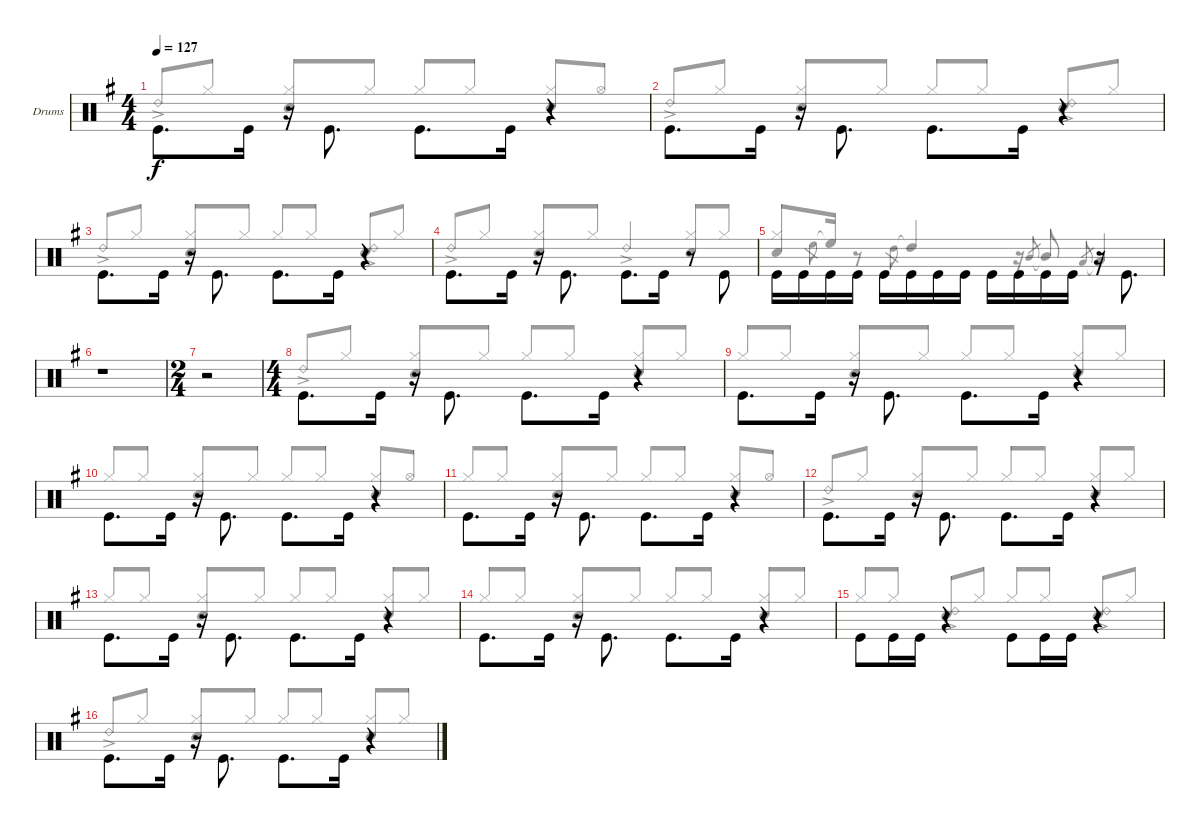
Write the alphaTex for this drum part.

\defaultSystemsLayout 4
\bracketExtendMode groupsimilarinstruments
\firstSystemTrackNameOrientation horizontal
\otherSystemsTrackNameOrientation horizontal
\track ("Drums" "Drums") {instrument percussion}
\staff {score}
\articulation defaults
\voice
\ts (4 4)
\tempo 127
\clef neutral
\scale
1.04288
\ks g "Kick (hit)".8{d dy f beam invert} "Kick (hit)".16
r.16{beam invert} "Kick (hit)".8{d beam invert} "Kick (hit)".8{d beam invert} "Kick (hit)".16 r.4 |
\scale
0.957125 "Kick (hit)".8{d beam invert} "Kick (hit)".16 r.16{beam invert} "Kick (hit)".8{d beam invert} "Kick (hit)".8{d beam invert} "Kick (hit)".16 r.4 |
\scale
1.04288 "Kick (hit)".8{d beam invert} "Kick (hit)".16 r.16{beam invert} "Kick (hit)".8{d beam invert} "Kick (hit)".8{d beam invert} "Kick (hit)".16 r.4 |
\scale
0.957125 "Kick (hit)".8{d beam invert} "Kick (hit)".16 r.16{beam invert} "Kick (hit)".8{d beam invert} "Kick (hit)".8{d beam invert} "Kick (hit)".16 r.8 "Kick (hit)".8{beam invert} |
\scale
1.04288 "Kick (hit)".16{beam invert} "Kick (hit)".16 "Kick (hit)".16 "Kick (hit)".16 "Kick (hit)".16{beam invert} "Kick (hit)".16 "Kick (hit)".16 "Kick (hit)".16 "Kick (hit)".16{beam invert} "Kick (hit)".16 "Kick (hit)".16 "Kick (hit)".16 r.16 "Kick (hit)".8{d beam invert} |
\scale
0.957125 r.1 |
\ts (2 4)
\scale
1.04288 r.2 |
\ts (4 4)
\scale
0.957125 "Kick (hit)".8{d beam invert} "Kick (hit)".16 r.16{beam invert} "Kick (hit)".8{d beam invert} "Kick (hit)".8{d beam invert} "Kick (hit)".16 r.4 |
\scale
1.04288 "Kick (hit)".8{d beam invert} "Kick (hit)".16 r.16{beam invert} "Kick (hit)".8{d beam invert} "Kick (hit)".8{d beam invert} "Kick (hit)".16 r.4 |
\scale
0.957125 "Kick (hit)".8{d beam invert} "Kick (hit)".16 r.16{beam invert} "Kick (hit)".8{d beam invert} "Kick (hit)".8{d beam invert} "Kick (hit)".16 r.4 |
\scale
1.04288 "Kick (hit)".8{d beam invert} "Kick (hit)".16 r.16{beam invert} "Kick (hit)".8{d beam invert} "Kick (hit)".8{d beam invert} "Kick (hit)".16 r.4 |
\scale
0.957125 "Kick (hit)".8{d beam invert} "Kick (hit)".16 r.16{beam invert} "Kick (hit)".8{d beam invert} "Kick (hit)".8{d beam invert} "Kick (hit)".16 r.4 |
\scale
1.04288 "Kick (hit)".8{d beam invert} "Kick (hit)".16 r.16{beam invert} "Kick (hit)".8{d beam invert} "Kick (hit)".8{d beam invert} "Kick (hit)".16 r.4 |
\scale
0.957125 "Kick (hit)".8{d beam invert} "Kick (hit)".16 r.16{beam invert} "Kick (hit)".8{d beam invert} "Kick (hit)".8{d beam invert} "Kick (hit)".16 r.4 |
\scale
1.04288 "Kick (hit)".8{beam invert} "Kick (hit)".16 "Kick (hit)".16 r.4{beam invert} "Kick (hit)".8{beam invert} "Kick (hit)".16 "Kick (hit)".16 r.4{beam invert} |
\scale
0.957125 "Kick (hit)".8{d beam invert} "Kick (hit)".16 r.16{beam invert} "Kick (hit)".8{d beam invert} "Kick (hit)".8{d beam invert} "Kick (hit)".16 r.4
\voice
\clef neutral
\ottava regular
\simile none
\scale
1.04288
\ks g "Ride (bell) 2"{ac}.8{dy f beam invert} "Hi-Hat (closed)".8
("Hi-Hat (closed)" "Snare (hit) 2").8{beam invert} "Hi-Hat (closed)".8 "Hi-Hat (closed)".8{beam invert} "Hi-Hat (closed)".8 ("Hi-Hat (closed)" "Snare (hit) 2").8{beam invert} "Hi-Hat (open)".8 |
\scale
0.957125 "Ride (bell) 2"{ac}.8{beam invert} "Hi-Hat (closed)".8 ("Hi-Hat (closed)" "Snare (hit) 2").8{beam invert} "Hi-Hat (closed)".8 "Hi-Hat (closed)".8{beam invert} "Hi-Hat (closed)".8 ("Snare (hit) 2" "Ride (bell) 2"{ac}).8{beam invert} "Hi-Hat (closed)".8 |
\scale
1.04288 "Ride (bell) 2"{ac}.8{beam invert} "Hi-Hat (closed)".8 ("Hi-Hat (closed)" "Snare (hit) 2").8{beam invert} "Hi-Hat (closed)".8 "Hi-Hat (closed)".8{beam invert} "Hi-Hat (closed)".8 ("Snare (hit) 2" "Ride (bell) 2"{ac}).8{beam invert} "Hi-Hat (closed)".8 |
\scale
0.957125 "Ride (bell) 2"{ac}.8{beam invert} "Hi-Hat (closed)".8 ("Hi-Hat (closed)" "Snare (hit) 2").8{beam invert} "Hi-Hat (closed)".8 "Ride (bell) 2"{ac}.4{beam invert} ("Hi-Hat (closed)" "Snare (hit) 2").8{beam invert} "Hi-Hat (closed)".8 |
\scale
1.04288 ("Snare (hit) 2" "Hi-Hat (closed)").8{beam invert} "High Floor Tom (hit)".8{gr} "High Floor Tom (hit)"{t}.16 r.8 "High Tom (hit)".8{gr} "High Tom (hit)"{t}.4{beam invert} r.16{beam invert} "Mid Tom (hit)".8{gr beam invert} "Mid Tom (hit)"{t}.8{beam invert} "Low Tom (hit)".8{gr beam invert} "Low Tom (hit)"{t}.4{beam invert} |
\scale
0.957125 |
\scale
1.04288 |
\scale
0.957125 "Ride (bell) 2"{ac}.8{beam invert} "Hi-Hat (closed)".8 ("Hi-Hat (closed)" "Snare (hit) 2").8{beam invert} "Hi-Hat (closed)".8 "Hi-Hat (closed)".8{beam invert} "Hi-Hat (closed)".8 ("Hi-Hat (closed)" "Snare (hit) 2").8{beam invert} "Hi-Hat (closed)".8 |
\scale
1.04288 "Hi-Hat (closed)".8{beam invert} "Hi-Hat (closed)".8 ("Hi-Hat (closed)" "Snare (hit) 2").8{beam invert} "Hi-Hat (closed)".8 "Hi-Hat (closed)".8{beam invert} "Hi-Hat (closed)".8 ("Hi-Hat (closed)" "Snare (hit) 2").8{beam invert} "Hi-Hat (closed)".8 |
\scale
0.957125 "Hi-Hat (closed)".8{beam invert} "Hi-Hat (closed)".8 ("Hi-Hat (closed)" "Snare (hit) 2").8{beam invert} "Hi-Hat (closed)".8 "Hi-Hat (closed)".8{beam invert} "Hi-Hat (closed)".8 ("Hi-Hat (closed)" "Snare (hit) 2").8{beam invert} "Hi-Hat (open)".8 |
\scale
1.04288 "Hi-Hat (closed)".8{beam invert} "Hi-Hat (closed)".8 ("Hi-Hat (closed)" "Snare (hit) 2").8{beam invert} "Hi-Hat (closed)".8 "Hi-Hat (closed)".8{beam invert} "Hi-Hat (closed)".8 ("Hi-Hat (closed)" "Snare (hit) 2").8{beam invert} "Hi-Hat (open)".8 |
\scale
0.957125 "Ride (bell) 2"{ac}.8{beam invert} "Hi-Hat (closed)".8 ("Hi-Hat (closed)" "Snare (hit) 2").8{beam invert} "Hi-Hat (closed)".8 "Hi-Hat (closed)".8{beam invert} "Hi-Hat (closed)".8 ("Hi-Hat (closed)" "Snare (hit) 2").8{beam invert} "Hi-Hat (closed)".8 |
\scale
1.04288 "Hi-Hat (closed)".8{beam invert} "Hi-Hat (closed)".8 ("Hi-Hat (closed)" "Snare (hit) 2").8{beam invert} "Hi-Hat (closed)".8 "Hi-Hat (closed)".8{beam invert} "Hi-Hat (closed)".8 ("Hi-Hat (closed)" "Snare (hit) 2").8{beam invert} "Hi-Hat (closed)".8 |
\scale
0.957125 "Hi-Hat (closed)".8{beam invert} "Hi-Hat (closed)".8 ("Hi-Hat (closed)" "Snare (hit) 2").8{beam invert} "Hi-Hat (closed)".8 "Hi-Hat (closed)".8{beam invert} "Hi-Hat (closed)".8 ("Hi-Hat (closed)" "Snare (hit) 2").8{beam invert} "Hi-Hat (closed)".8 |
\scale
1.04288 "Hi-Hat (closed)".8{beam invert} "Hi-Hat (closed)".8 ("Snare (hit) 2" "Ride (bell) 2"{ac}).8{beam invert} "Hi-Hat (closed)".8 "Hi-Hat (closed)".8{beam invert} "Hi-Hat (closed)".8 ("Snare (hit) 2" "Ride (bell) 2"{ac}).8{beam invert} "Hi-Hat (closed)".8 |
\scale
0.957125 "Ride (bell) 2"{ac}.8{beam invert} "Hi-Hat (closed)".8 ("Hi-Hat (closed)" "Snare (hit) 2").8{beam invert} "Hi-Hat (closed)".8 "Hi-Hat (closed)".8{beam invert} "Hi-Hat (closed)".8 ("Hi-Hat (closed)" "Snare (hit) 2").8{beam invert} "Hi-Hat (closed)".8
